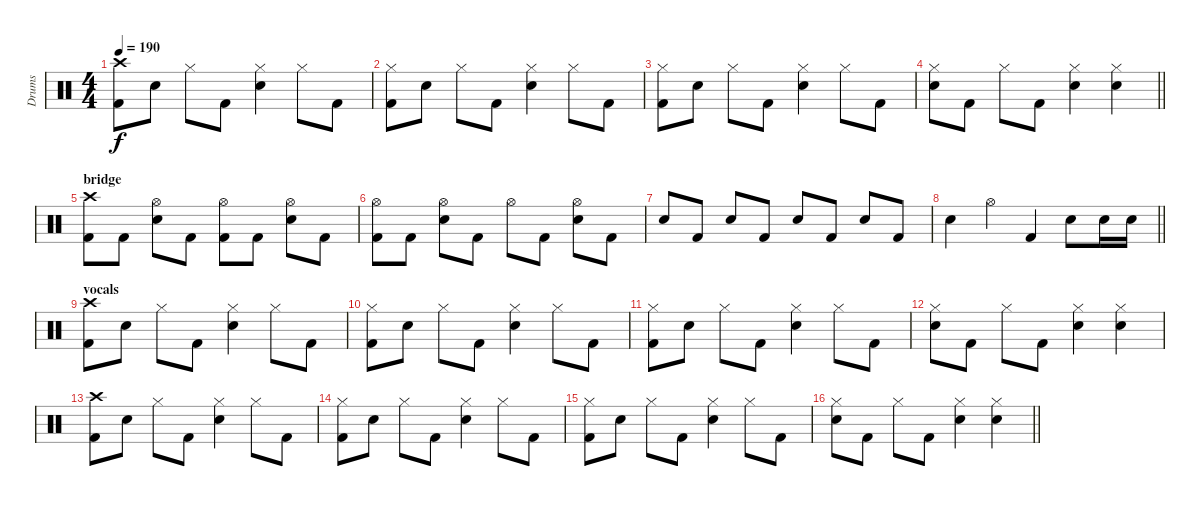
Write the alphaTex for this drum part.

\track ("Drums" "Drums") {instrument percussion}
\staff {score}
\articulation defaults
\ts (4 4)
\tempo 190
\clef neutral
\ks c
("Crash high (hit)" "Kick (hit) 2").8{dy f} "Snare (hit) 2".8 "Hi-Hat (closed)".8 "Kick (hit) 2".8 ("Hi-Hat (closed)" "Snare (hit) 2").4 "Hi-Hat (closed)".8 "Kick (hit) 2".8 |
("Hi-Hat (closed)" "Kick (hit) 2").8 "Snare (hit) 2".8 "Hi-Hat (closed)".8 "Kick (hit) 2".8 ("Hi-Hat (closed)" "Snare (hit) 2").4 "Hi-Hat (closed)".8 "Kick (hit) 2".8 |
("Hi-Hat (closed)" "Kick (hit) 2").8 "Snare (hit) 2".8 "Hi-Hat (closed)".8 "Kick (hit) 2".8 ("Hi-Hat (closed)" "Snare (hit) 2").4 "Hi-Hat (closed)".8 "Kick (hit) 2".8 |
\barLineRight lightlight
("Hi-Hat (closed)" "Snare (hit) 2").8 "Kick (hit) 2".8 "Hi-Hat (closed)".8 "Kick (hit) 2".8 ("Hi-Hat (closed)" "Snare (hit) 2").4 ("Hi-Hat (closed)" "Snare (hit) 2").4 |
\section ("" "bridge")
("Crash high (hit)" "Kick (hit) 2").8 "Kick (hit) 2".8 ("Hi-Hat (open)" "Snare (hit) 2").8 "Kick (hit) 2".8 ("Hi-Hat (open)" "Kick (hit) 2").8 "Kick (hit) 2".8 ("Hi-Hat (open)" "Snare (hit) 2").8 "Kick (hit) 2".8 |
("Hi-Hat (open)" "Kick (hit) 2").8 "Kick (hit) 2".8 ("Hi-Hat (open)" "Snare (hit) 2").8 "Kick (hit) 2".8 "Hi-Hat (open)".8 "Kick (hit) 2".8 ("Hi-Hat (open)" "Snare (hit) 2").8 "Kick (hit) 2".8 |
"Snare (hit) 2".8 "Kick (hit) 2".8 "Snare (hit) 2".8 "Kick (hit) 2".8 "Snare (hit) 2".8 "Kick (hit) 2".8 "Snare (hit) 2".8 "Kick (hit) 2".8 |
\barLineRight lightlight "Snare (hit) 2".4 "Hi-Hat (open)".4 "Kick (hit) 2".4 "Snare (hit) 2".8 "Snare (hit) 2".16 "Snare (hit) 2".16
|
\section ("" "vocals")
("Crash high (hit)" "Kick (hit) 2").8 "Snare (hit) 2".8 "Hi-Hat (closed)".8 "Kick (hit) 2".8 ("Hi-Hat (closed)" "Snare (hit) 2").4 "Hi-Hat (closed)".8 "Kick (hit) 2".8 |
("Hi-Hat (closed)" "Kick (hit) 2").8 "Snare (hit) 2".8 "Hi-Hat (closed)".8 "Kick (hit) 2".8 ("Hi-Hat (closed)" "Snare (hit) 2").4 "Hi-Hat (closed)".8 "Kick (hit) 2".8 |
("Hi-Hat (closed)" "Kick (hit) 2").8 "Snare (hit) 2".8 "Hi-Hat (closed)".8 "Kick (hit) 2".8 ("Hi-Hat (closed)" "Snare (hit) 2").4 "Hi-Hat (closed)".8 "Kick (hit) 2".8 |
("Hi-Hat (closed)" "Snare (hit) 2").8 "Kick (hit) 2".8 "Hi-Hat (closed)".8 "Kick (hit) 2".8 ("Hi-Hat (closed)" "Snare (hit) 2").4 ("Hi-Hat (closed)" "Snare (hit) 2").4 |
("Crash high (hit)" "Kick (hit) 2").8 "Snare (hit) 2".8 "Hi-Hat (closed)".8 "Kick (hit) 2".8 ("Hi-Hat (closed)" "Snare (hit) 2").4 "Hi-Hat (closed)".8 "Kick (hit) 2".8 |
("Hi-Hat (closed)" "Kick (hit) 2").8 "Snare (hit) 2".8 "Hi-Hat (closed)".8 "Kick (hit) 2".8 ("Hi-Hat (closed)" "Snare (hit) 2").4 "Hi-Hat (closed)".8 "Kick (hit) 2".8 |
("Hi-Hat (closed)" "Kick (hit) 2").8 "Snare (hit) 2".8 "Hi-Hat (closed)".8 "Kick (hit) 2".8 ("Hi-Hat (closed)" "Snare (hit) 2").4 "Hi-Hat (closed)".8 "Kick (hit) 2".8 |
\barLineRight lightlight
("Hi-Hat (closed)" "Snare (hit) 2").8 "Kick (hit) 2".8 "Hi-Hat (closed)".8 "Kick (hit) 2".8 ("Hi-Hat (closed)" "Snare (hit) 2").4 ("Hi-Hat (closed)" "Snare (hit) 2").4
